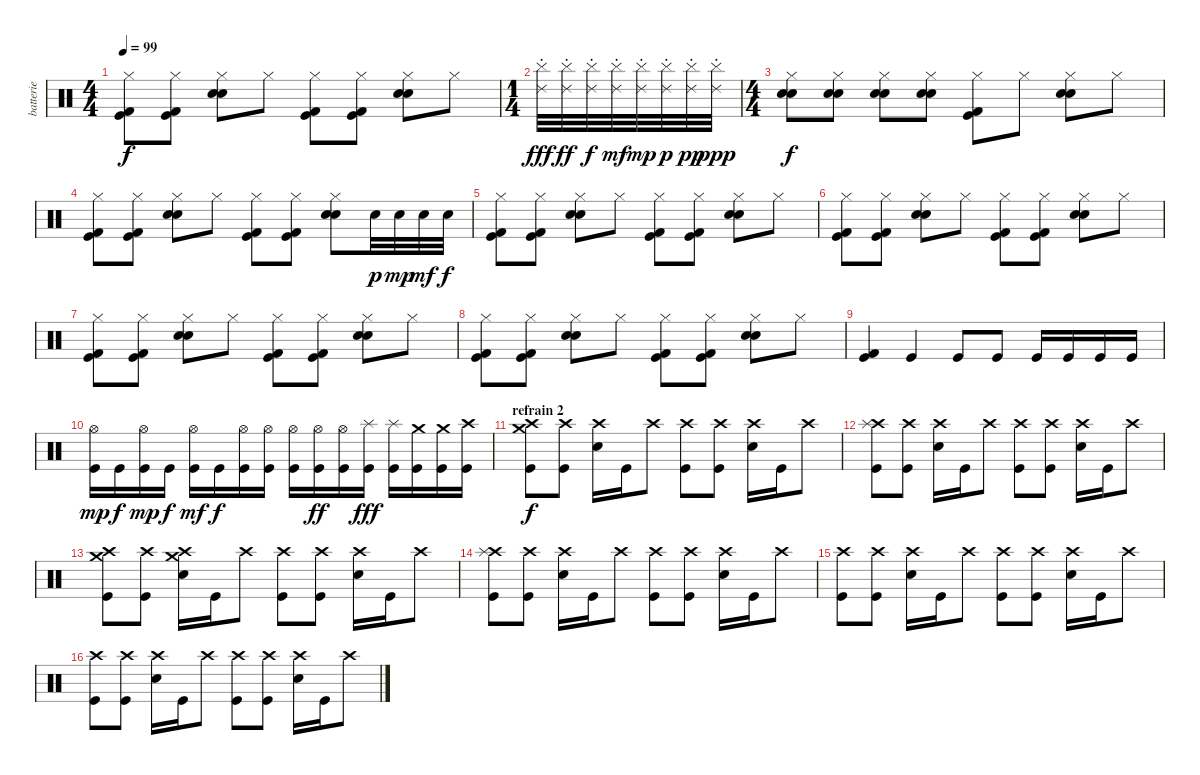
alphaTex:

\track ("batterie" "batterie") {instrument percussion}
\staff {score}
\articulation defaults
\ts (4 4)
\tempo 99
\clef neutral
\ks c
("Hi-Hat (closed)" "Kick (hit) 2" "Kick (hit)").8{dy f} ("Hi-Hat (closed)" "Kick (hit) 2" "Kick (hit)").8 ("Hi-Hat (closed)" "Electric Snare (hit)" "Electric Snare (hit)").8 "Hi-Hat (closed)".8 ("Hi-Hat (closed)" "Kick (hit) 2" "Kick (hit)").8 ("Hi-Hat (closed)" "Kick (hit) 2" "Kick (hit)").8 ("Hi-Hat (closed)" "Electric Snare (hit)" "Electric Snare (hit)").8 "Hi-Hat (closed)".8 |
\ts (1 4)
("Ride (choke) 2" "Cymbal (hit)").32{dy fff} ("Cymbal (hit)" "Ride (choke) 2").32{dy ff} ("Cymbal (hit)" "Ride (choke) 2").32{dy f} ("Cymbal (hit)" "Ride (choke) 2").32{dy mf} ("Cymbal (hit)" "Ride (choke) 2").32{dy mp} ("Cymbal (hit)" "Ride (choke) 2").32{dy p} ("Cymbal (hit)" "Ride (choke) 2").32{dy pp} ("Cymbal (hit)" "Ride (choke) 2").32{dy ppp} |
\ts (4 4)
("Hi-Hat (closed)" "Electric Snare (hit)" "Electric Snare (hit)").8{dy f} ("Hi-Hat (closed)" "Electric Snare (hit)" "Electric Snare (hit)").8 ("Hi-Hat (closed)" "Electric Snare (hit)" "Electric Snare (hit)").8 ("Hi-Hat (closed)" "Electric Snare (hit)" "Electric Snare (hit)").8 ("Hi-Hat (closed)" "Kick (hit) 2" "Kick (hit)").8 "Hi-Hat (closed)".8 ("Hi-Hat (closed)" "Electric Snare (hit)" "Electric Snare (hit)").8 "Hi-Hat (closed)".8 |
("Hi-Hat (closed)" "Kick (hit) 2" "Kick (hit)").8 ("Hi-Hat (closed)" "Kick (hit) 2" "Kick (hit)").8 ("Hi-Hat (closed)" "Electric Snare (hit)" "Electric Snare (hit)").8 "Hi-Hat (closed)".8 ("Hi-Hat (closed)" "Kick (hit) 2" "Kick (hit)").8 ("Hi-Hat (closed)" "Kick (hit) 2" "Kick (hit)").8 ("Hi-Hat (closed)" "Electric Snare (hit)" "Electric Snare (hit)").8 "Electric Snare (hit)".32{dy p} "Electric Snare (hit)".32{dy mp} "Electric Snare (hit)".32{dy mf} "Electric Snare (hit)".32{dy f} |
("Hi-Hat (closed)" "Kick (hit) 2" "Kick (hit)").8 ("Hi-Hat (closed)" "Kick (hit) 2" "Kick (hit)").8 ("Hi-Hat (closed)" "Electric Snare (hit)" "Electric Snare (hit)").8 "Hi-Hat (closed)".8 ("Hi-Hat (closed)" "Kick (hit) 2" "Kick (hit)").8 ("Hi-Hat (closed)" "Kick (hit) 2" "Kick (hit)").8 ("Hi-Hat (closed)" "Electric Snare (hit)" "Electric Snare (hit)").8 "Hi-Hat (closed)".8 |
("Hi-Hat (closed)" "Kick (hit) 2" "Kick (hit)").8 ("Hi-Hat (closed)" "Kick (hit) 2" "Kick (hit)").8 ("Hi-Hat (closed)" "Electric Snare (hit)" "Electric Snare (hit)").8 "Hi-Hat (closed)".8 ("Hi-Hat (closed)" "Kick (hit) 2" "Kick (hit)").8 ("Hi-Hat (closed)" "Kick (hit) 2" "Kick (hit)").8 ("Hi-Hat (closed)" "Electric Snare (hit)" "Electric Snare (hit)").8 "Hi-Hat (closed)".8 |
("Hi-Hat (closed)" "Kick (hit) 2" "Kick (hit)").8 ("Hi-Hat (closed)" "Kick (hit) 2" "Kick (hit)").8 ("Hi-Hat (closed)" "Electric Snare (hit)" "Electric Snare (hit)").8 "Hi-Hat (closed)".8 ("Hi-Hat (closed)" "Kick (hit) 2" "Kick (hit)").8 ("Hi-Hat (closed)" "Kick (hit) 2" "Kick (hit)").8 ("Hi-Hat (closed)" "Electric Snare (hit)" "Electric Snare (hit)").8 "Hi-Hat (closed)".8 |
("Hi-Hat (closed)" "Kick (hit) 2" "Kick (hit)").8 ("Hi-Hat (closed)" "Kick (hit) 2" "Kick (hit)").8 ("Hi-Hat (closed)" "Electric Snare (hit)" "Electric Snare (hit)").8 "Hi-Hat (closed)".8 ("Hi-Hat (closed)" "Kick (hit) 2" "Kick (hit)").8 ("Hi-Hat (closed)" "Kick (hit) 2" "Kick (hit)").8 ("Hi-Hat (closed)" "Electric Snare (hit)" "Electric Snare (hit)").8 "Hi-Hat (closed)".8 |
("Kick (hit) 2" "Kick (hit)").4 "Kick (hit)".4 "Kick (hit)".8 "Kick (hit)".8 "Kick (hit)".16 "Kick (hit)".16 "Kick (hit)".16 "Kick (hit)".16 |
("Hi-Hat (open)" "Kick (hit)").16{dy mp} "Kick (hit)".16{dy f} ("Hi-Hat (open)" "Kick (hit)").16{dy mp} "Kick (hit)".16{dy f} ("Hi-Hat (open)" "Kick (hit)").16{dy mf} "Kick (hit)".16{dy f} ("Hi-Hat (open)" "Kick (hit)").16 ("Hi-Hat (open)" "Kick (hit)").16 ("Hi-Hat (open)" "Kick (hit)").16 ("Hi-Hat (open)" "Kick (hit)").16{dy ff} ("Hi-Hat (open)" "Kick (hit)").16 ("Splash (hit)" "Kick (hit)").16{dy fff} ("Splash (hit)" "Kick (hit)").16 ("Crash medium (hit)" "Kick (hit)").16 ("Crash medium (hit)" "Kick (hit)").16 ("Crash high (hit)" "Kick (hit)").16 |
\section ("" "refrain 2")
("Crash high (hit)" "Crash medium (hit)" "Kick (hit)").8{dy f} ("Crash high (hit)" "Kick (hit)").8 ("Crash high (hit)" "Electric Snare (hit)").16 "Kick (hit)".16 "Crash high (hit)".8 ("Crash high (hit)" "Kick (hit)").8 ("Crash high (hit)" "Kick (hit)").8 ("Crash high (hit)" "Electric Snare (hit)").16 "Kick (hit)".16 "Crash high (hit)".8 |
("Crash high (hit)" "Splash (hit)" "Kick (hit)").8 ("Crash high (hit)" "Kick (hit)").8 ("Crash high (hit)" "Electric Snare (hit)").16 "Kick (hit)".16 "Crash high (hit)".8 ("Crash high (hit)" "Kick (hit)").8 ("Crash high (hit)" "Kick (hit)").8 ("Crash high (hit)" "Electric Snare (hit)").16 "Kick (hit)".16 "Crash high (hit)".8 |
("Crash high (hit)" "Crash medium (hit)" "Kick (hit)").8 ("Crash high (hit)" "Kick (hit)").8 ("Crash high (hit)" "Crash medium (hit)" "Electric Snare (hit)").16 "Kick (hit)".16 "Crash high (hit)".8 ("Crash high (hit)" "Kick (hit)").8 ("Crash high (hit)" "Kick (hit)").8 ("Crash high (hit)" "Electric Snare (hit)").16 "Kick (hit)".16 "Crash high (hit)".8 |
("Crash high (hit)" "Splash (hit)" "Kick (hit)").8 ("Crash high (hit)" "Kick (hit)").8 ("Crash high (hit)" "Electric Snare (hit)").16 "Kick (hit)".16 "Crash high (hit)".8 ("Crash high (hit)" "Kick (hit)").8 ("Crash high (hit)" "Kick (hit)").8 ("Crash high (hit)" "Electric Snare (hit)").16 "Kick (hit)".16 "Crash high (hit)".8 |
("Crash high (hit)" "Kick (hit)").8 ("Crash high (hit)" "Kick (hit)").8 ("Crash high (hit)" "Electric Snare (hit)").16 "Kick (hit)".16 "Crash high (hit)".8 ("Crash high (hit)" "Kick (hit)").8 ("Crash high (hit)" "Kick (hit)").8 ("Crash high (hit)" "Electric Snare (hit)").16 "Kick (hit)".16 "Crash high (hit)".8 |
("Crash high (hit)" "Kick (hit)").8 ("Crash high (hit)" "Kick (hit)").8 ("Crash high (hit)" "Electric Snare (hit)").16 "Kick (hit)".16 "Crash high (hit)".8 ("Crash high (hit)" "Kick (hit)").8 ("Crash high (hit)" "Kick (hit)").8 ("Crash high (hit)" "Electric Snare (hit)").16 "Kick (hit)".16 "Crash high (hit)".8
